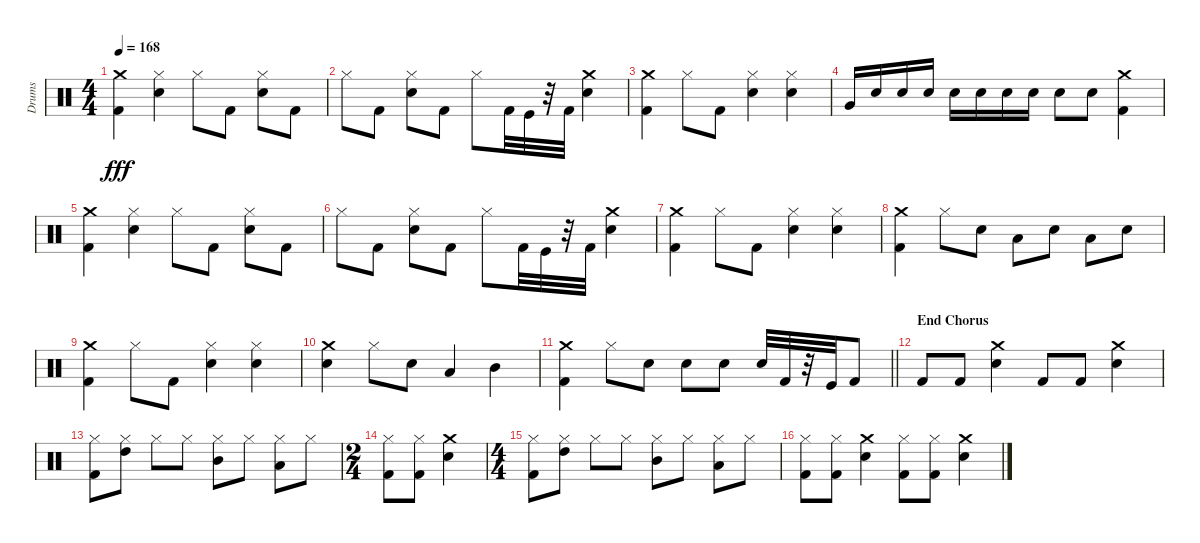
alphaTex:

\track ("Drums" "Drums") {instrument percussion}
\staff {score}
\articulation defaults
\ts (4 4)
\tempo 168
\clef neutral
\ks c
("Kick (hit) 2" "Crash medium (hit)").4{dy fff} ("Hi-Hat (closed)" "Snare (hit) 2").4 "Hi-Hat (closed)".8 "Kick (hit) 2".8 ("Snare (hit) 2" "Hi-Hat (closed)").8 "Kick (hit) 2".8 |
"Hi-Hat (closed)".8 "Kick (hit) 2".8 ("Snare (hit) 2" "Hi-Hat (closed)").8 "Kick (hit) 2".8 "Hi-Hat (closed)".8 "Kick (hit) 2".32 "Kick (hit)".32 r.32 "Kick (hit) 2".32 ("Crash medium (hit)" "Snare (hit) 2").4 |
("Kick (hit) 2" "Crash medium (hit)").4 "Hi-Hat (closed)".8 "Kick (hit) 2".8 ("Snare (hit) 2" "Hi-Hat (closed)").4 ("Hi-Hat (closed)" "Snare (hit) 2").4 |
"Very Low Tom (hit)".16 "Snare (hit) 2".16 "Snare (hit) 2".16 "Snare (hit) 2".16 "Snare (hit) 2".16 "Snare (hit) 2".16 "Snare (hit) 2".16 "Snare (hit) 2".16 "Snare (hit) 2".8 "Snare (hit) 2".8 ("Crash medium (hit)" "Kick (hit) 2").4 |
("Kick (hit) 2" "Crash medium (hit)").4 ("Hi-Hat (closed)" "Snare (hit) 2").4 "Hi-Hat (closed)".8 "Kick (hit) 2".8 ("Snare (hit) 2" "Hi-Hat (closed)").8 "Kick (hit) 2".8 |
"Hi-Hat (closed)".8 "Kick (hit) 2".8 ("Snare (hit) 2" "Hi-Hat (closed)").8 "Kick (hit) 2".8 "Hi-Hat (closed)".8 "Kick (hit) 2".32 "Kick (hit)".32 r.32 "Kick (hit) 2".32 ("Crash medium (hit)" "Snare (hit) 2").4 |
("Kick (hit) 2" "Crash medium (hit)").4 "Hi-Hat (closed)".8 "Kick (hit) 2".8 ("Snare (hit) 2" "Hi-Hat (closed)").4 ("Hi-Hat (closed)" "Snare (hit) 2").4 |
("Kick (hit) 2" "Crash medium (hit)").4 "Hi-Hat (closed)".8 "Snare (hit) 2".8 "Low Tom (hit)".8 "Snare (hit) 2".8 "Low Tom (hit)".8 "Snare (hit) 2".8 |
("Kick (hit) 2" "Crash medium (hit)").4 "Hi-Hat (closed)".8 "Kick (hit) 2".8 ("Snare (hit) 2" "Hi-Hat (closed)").4 ("Hi-Hat (closed)" "Snare (hit) 2").4 |
("Snare (hit) 2" "Crash medium (hit)").4 "Hi-Hat (closed)".8 "Snare (hit) 2".8 "Low Tom (hit)".4 "Mid Tom (hit)".4 |
\barLineRight lightlight
("Kick (hit) 2" "Crash medium (hit)").4 "Hi-Hat (closed)".8 "Snare (hit) 2".8 "Snare (hit) 2".8 "Snare (hit) 2".8 "Snare (hit) 2".32 "Kick (hit) 2".32 r.32 "Kick (hit)".32 "Kick (hit) 2".8 |
\section ("" "End Chorus")
"Kick (hit) 2".8 "Kick (hit) 2".8 ("Snare (hit) 2" "Crash medium (hit)").4 "Kick (hit) 2".8 "Kick (hit) 2".8 ("Crash medium (hit)" "Snare (hit) 2").4 |
("Hi-Hat (closed)" "Kick (hit) 2").8 ("High Tom (hit)" "Hi-Hat (closed)").8{balance 16} "Hi-Hat (closed)".8{balance 8} "Hi-Hat (closed)".8 ("Mid Tom (hit)" "Hi-Hat (closed)").8 "Hi-Hat (closed)".8 ("Low Tom (hit)" "Hi-Hat (closed)").8{balance 0} "Hi-Hat (closed)".8{balance 8} |
\ts (2 4)
("Kick (hit) 2" "Hi-Hat (closed)").8 ("Kick (hit) 2" "Hi-Hat (closed)").8 ("Snare (hit) 2" "Crash medium (hit)").4 |
\ts (4 4)
("Hi-Hat (closed)" "Kick (hit) 2").8 ("High Tom (hit)" "Hi-Hat (closed)").8{balance 16} "Hi-Hat (closed)".8{balance 8} "Hi-Hat (closed)".8 ("Mid Tom (hit)" "Hi-Hat (closed)").8 "Hi-Hat (closed)".8 ("Hi-Hat (closed)" "Low Tom (hit)").8{balance 0} "Hi-Hat (closed)".8{balance 8} |
("Hi-Hat (closed)" "Kick (hit) 2").8 ("Hi-Hat (closed)" "Kick (hit) 2").8 ("Snare (hit) 2" "Crash medium (hit)").4 ("Kick (hit) 2" "Hi-Hat (closed)").8 ("Kick (hit) 2" "Hi-Hat (closed)").8 ("Crash medium (hit)" "Snare (hit) 2").4
